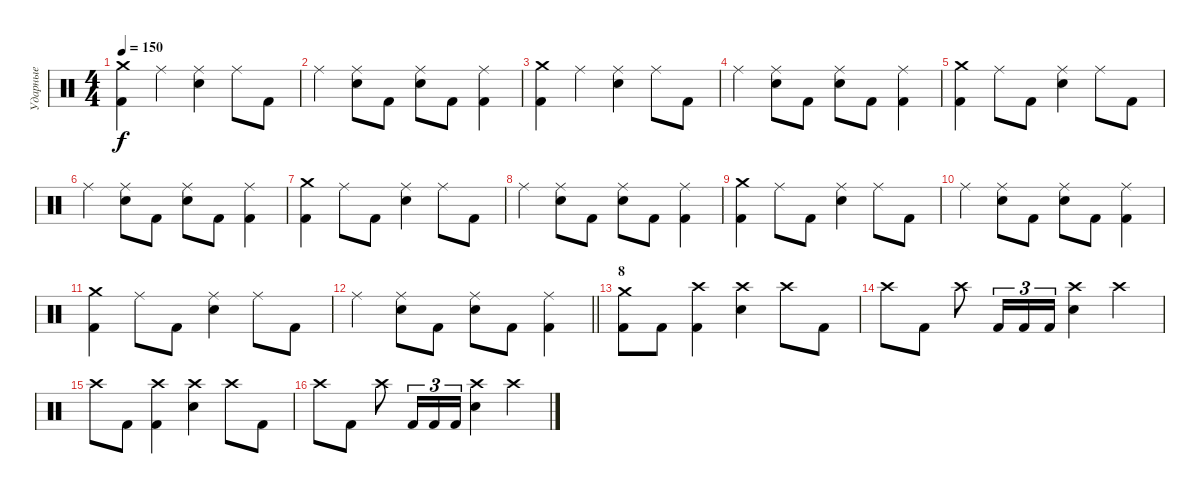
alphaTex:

\track ("Ударные" "Ударные") {instrument percussion}
\staff {score}
\articulation defaults
\ts (4 4)
\tempo 150
\clef neutral
\ks c
("Crash medium (hit)" "Kick (hit) 2").4{dy f} "Ride (middle)".4 ("Ride (middle)" "Electric Snare (hit)").4 "Ride (middle)".8 "Kick (hit) 2".8 |
"Ride (middle)".4 ("Ride (middle)" "Electric Snare (hit)").8 "Kick (hit) 2".8 ("Ride (middle)" "Electric Snare (hit)").8 "Kick (hit) 2".8 ("Ride (middle)" "Kick (hit) 2").4 |
("Crash medium (hit)" "Kick (hit) 2").4 "Ride (middle)".4 ("Ride (middle)" "Electric Snare (hit)").4 "Ride (middle)".8 "Kick (hit) 2".8 |
"Ride (middle)".4 ("Ride (middle)" "Electric Snare (hit)").8 "Kick (hit) 2".8 ("Ride (middle)" "Electric Snare (hit)").8 "Kick (hit) 2".8 ("Ride (middle)" "Kick (hit) 2").4 |
("Crash medium (hit)" "Kick (hit) 2").4 "Ride (middle)".8 "Kick (hit) 2".8 ("Ride (middle)" "Electric Snare (hit)").4 "Ride (middle)".8 "Kick (hit) 2".8 |
"Ride (middle)".4 ("Ride (middle)" "Electric Snare (hit)").8 "Kick (hit) 2".8 ("Ride (middle)" "Electric Snare (hit)").8 "Kick (hit) 2".8 ("Ride (middle)" "Kick (hit) 2").4 |
("Crash medium (hit)" "Kick (hit) 2").4 "Ride (middle)".8 "Kick (hit) 2".8 ("Ride (middle)" "Electric Snare (hit)").4 "Ride (middle)".8 "Kick (hit) 2".8 |
"Ride (middle)".4 ("Ride (middle)" "Electric Snare (hit)").8 "Kick (hit) 2".8 ("Ride (middle)" "Electric Snare (hit)").8 "Kick (hit) 2".8 ("Ride (middle)" "Kick (hit) 2").4 |
("Crash medium (hit)" "Kick (hit) 2").4 "Ride (middle)".8 "Kick (hit) 2".8 ("Ride (middle)" "Electric Snare (hit)").4 "Ride (middle)".8 "Kick (hit) 2".8 |
"Ride (middle)".4 ("Ride (middle)" "Electric Snare (hit)").8 "Kick (hit) 2".8 ("Ride (middle)" "Electric Snare (hit)").8 "Kick (hit) 2".8 ("Ride (middle)" "Kick (hit) 2").4 |
("Crash medium (hit)" "Kick (hit) 2").4 "Ride (middle)".8 "Kick (hit) 2".8 ("Ride (middle)" "Electric Snare (hit)").4 "Ride (middle)".8 "Kick (hit) 2".8 |
\barLineRight lightlight "Ride (middle)".4
("Ride (middle)" "Electric Snare (hit)").8 "Kick (hit) 2".8 ("Ride (middle)" "Electric Snare (hit)").8 "Kick (hit) 2".8 ("Ride (middle)" "Kick (hit) 2").4 |
\section ("" "8")
("Crash medium (hit)" "Kick (hit) 2").8 "Kick (hit) 2".8 ("Crash high (hit)" "Kick (hit) 2").4 ("Crash high (hit)" "Electric Snare (hit)").4 "Crash high (hit)".8 "Kick (hit) 2".8 |
"Crash high (hit)".8 "Kick (hit) 2".8 "Crash high (hit)".8 "Kick (hit) 2".16{tu (3 2)} "Kick (hit) 2".16{tu (3 2)} "Kick (hit) 2".16{tu (3 2)} ("Crash high (hit)" "Electric Snare (hit)").4 "Crash high (hit)".4 |
"Crash high (hit)".8 "Kick (hit) 2".8 ("Crash high (hit)" "Kick (hit) 2").4 ("Crash high (hit)" "Electric Snare (hit)").4 "Crash high (hit)".8 "Kick (hit) 2".8 |
"Crash high (hit)".8 "Kick (hit) 2".8 "Crash high (hit)".8 "Kick (hit) 2".16{tu (3 2)} "Kick (hit) 2".16{tu (3 2)} "Kick (hit) 2".16{tu (3 2)} ("Crash high (hit)" "Electric Snare (hit)").4 "Crash high (hit)".4
